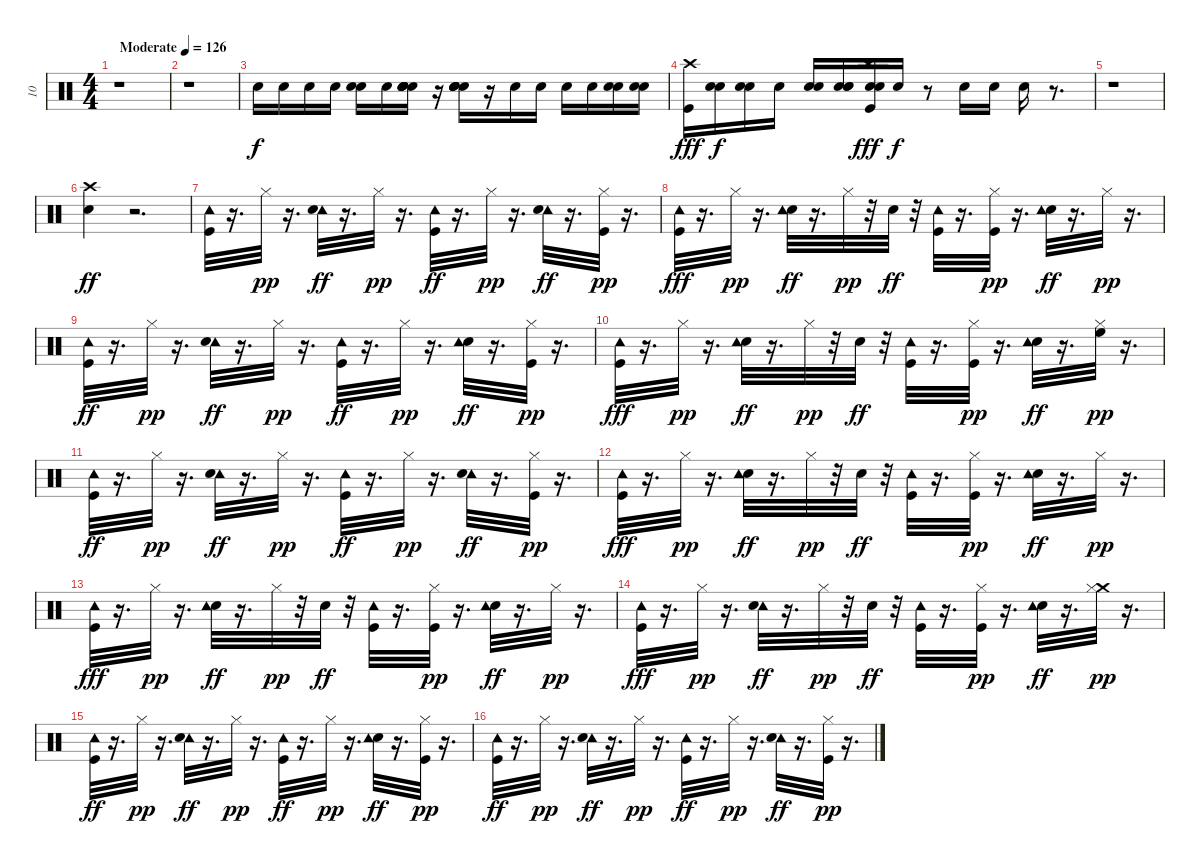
\track ("10" "10") {instrument percussion}
\staff {score}
\articulation defaults
\ts (4 4)
\tempo (126 "Moderate")
\clef neutral
\ks c
r.1{dy f} |
r.1 |
"Snare (hit)".16 "Snare (hit)".16 "Snare (hit)".16 "Snare (hit)".16 ("Snare (hit)" "Snare (hit)").16 "Snare (hit)".16 ("Snare (hit)" "Snare (hit)" "Snare (hit)" "Snare (hit)" "Snare (hit)" "Snare (hit)").16 r.16 ("Snare (hit)" "Snare (hit)" "Snare (hit)" "Snare (hit)").16 r.16 "Snare (hit)".16 "Snare (hit)".16 "Snare (hit)".16 "Snare (hit)".16 ("Snare (hit)" "Snare (hit)").16 ("Snare (hit)" "Snare (hit)").16 |
("Crash high (hit)" "Kick (hit)").16{dy fff} ("Snare (hit)" "Snare (hit)").16{dy f} ("Snare (hit)" "Snare (hit)").16 "Snare (hit)".16 ("Snare (hit)" "Snare (hit)").16 ("Snare (hit)" "Snare (hit)" "Snare (hit)").16 ("Snare (hit)" "Snare (hit)" "Crash high (hit)" "Kick (hit)").16{dy fff} "Snare (hit)".16{dy f} r.8 "Snare (hit)".16 "Snare (hit)".16 "Snare (hit)".16 r.8{d} |
r.1 |
("Crash high (hit)" "Electric Snare (hit)").4{dy ff} r.2{d} |
("Tambourine (hit)" "Kick (hit)").32 r.16{d} "Hi-Hat (closed)".32{dy pp} r.16{d} ("Tambourine (hit)" "Electric Snare (hit)").32{dy ff} r.16{d} "Hi-Hat (closed)".32{dy pp} r.16{d} ("Kick (hit)" "Tambourine (hit)").32{dy ff} r.16{d} "Hi-Hat (closed)".32{dy pp} r.16{d} ("Tambourine (hit)" "Electric Snare (hit)").32{dy ff} r.16{d} ("Kick (hit)" "Hi-Hat (closed)").32{dy pp} r.16{d} |
("Tambourine (hit)" "Kick (hit)").32{dy fff} r.16{d} "Hi-Hat (closed)".32{dy pp} r.16{d} ("Electric Snare (hit)" "Tambourine (hit)").32{dy ff} r.16{d} "Hi-Hat (closed)".32{dy pp} r.32 "Electric Snare (hit)".32{dy ff} r.32 ("Tambourine (hit)" "Kick (hit)").32 r.16{d} ("Hi-Hat (closed)" "Kick (hit)").32{dy pp} r.16{d} ("Electric Snare (hit)" "Tambourine (hit)").32{dy ff} r.16{d} "Hi-Hat (closed)".32{dy pp} r.16{d} |
("Tambourine (hit)" "Kick (hit)").32{dy ff} r.16{d} "Hi-Hat (closed)".32{dy pp} r.16{d} ("Tambourine (hit)" "Electric Snare (hit)").32{dy ff} r.16{d} "Hi-Hat (closed)".32{dy pp} r.16{d} ("Kick (hit)" "Tambourine (hit)").32{dy ff} r.16{d} "Hi-Hat (closed)".32{dy pp} r.16{d} ("Electric Snare (hit)" "Tambourine (hit)").32{dy ff} r.16{d} ("Hi-Hat (closed)" "Kick (hit)").32{dy pp} r.16{d} |
("Kick (hit)" "Tambourine (hit)").32{dy fff} r.16{d} "Hi-Hat (closed)".32{dy pp} r.16{d} ("Electric Snare (hit)" "Tambourine (hit)").32{dy ff} r.16{d} "Hi-Hat (closed)".32{dy pp} r.32 "Electric Snare (hit)".32{dy ff} r.32 ("Tambourine (hit)" "Kick (hit)").32 r.16{d} ("Hi-Hat (closed)" "Kick (hit)").32{dy pp} r.16{d} ("Electric Snare (hit)" "Tambourine (hit)").32{dy ff} r.16{d} ("High Floor Tom (hit)" "Hi-Hat (closed)").32{dy pp} r.16{d} |
("Tambourine (hit)" "Kick (hit)").32{dy ff} r.16{d} "Hi-Hat (closed)".32{dy pp} r.16{d} ("Tambourine (hit)" "Electric Snare (hit)").32{dy ff} r.16{d} "Hi-Hat (closed)".32{dy pp} r.16{d} ("Tambourine (hit)" "Kick (hit)").32{dy ff} r.16{d} "Hi-Hat (closed)".32{dy pp} r.16{d} ("Tambourine (hit)" "Electric Snare (hit)").32{dy ff} r.16{d} ("Kick (hit)" "Hi-Hat (closed)").32{dy pp} r.16{d} |
("Tambourine (hit)" "Kick (hit)").32{dy fff} r.16{d} "Hi-Hat (closed)".32{dy pp} r.16{d} ("Electric Snare (hit)" "Tambourine (hit)").32{dy ff} r.16{d} "Hi-Hat (closed)".32{dy pp} r.32 "Electric Snare (hit)".32{dy ff} r.32 ("Tambourine (hit)" "Kick (hit)").32 r.16{d} ("Hi-Hat (closed)" "Kick (hit)").32{dy pp} r.16{d} ("Electric Snare (hit)" "Tambourine (hit)").32{dy ff} r.16{d} "Hi-Hat (closed)".32{dy pp} r.16{d} |
("Kick (hit)" "Tambourine (hit)").32{dy fff} r.16{d} "Hi-Hat (closed)".32{dy pp} r.16{d} ("Electric Snare (hit)" "Tambourine (hit)").32{dy ff} r.16{d} "Hi-Hat (closed)".32{dy pp} r.32 "Electric Snare (hit)".32{dy ff} r.32 ("Tambourine (hit)" "Kick (hit)").32 r.16{d} ("Hi-Hat (closed)" "Kick (hit)").32{dy pp} r.16{d} ("Electric Snare (hit)" "Tambourine (hit)").32{dy ff} r.16{d} "Hi-Hat (closed)".32{dy pp} r.16{d} |
("Tambourine (hit)" "Kick (hit)").32{dy fff} r.16{d} "Hi-Hat (closed)".32{dy pp} r.16{d} ("Tambourine (hit)" "Electric Snare (hit)").32{dy ff} r.16{d} "Hi-Hat (closed)".32{dy pp} r.32 "Electric Snare (hit)".32{dy ff} r.32 ("Kick (hit)" "Tambourine (hit)").32 r.16{d} ("Hi-Hat (closed)" "Kick (hit)").32{dy pp} r.16{d} ("Electric Snare (hit)" "Tambourine (hit)").32{dy ff} r.16{d} ("Crash medium (hit)" "Hi-Hat (closed)").32{dy pp} r.16{d} |
("Tambourine (hit)" "Kick (hit)").32{dy ff} r.16{d} "Hi-Hat (closed)".32{dy pp} r.16{d} ("Tambourine (hit)" "Electric Snare (hit)").32{dy ff} r.16{d} "Hi-Hat (closed)".32{dy pp} r.16{d} ("Kick (hit)" "Tambourine (hit)").32{dy ff} r.16{d} "Hi-Hat (closed)".32{dy pp} r.16{d} ("Electric Snare (hit)" "Tambourine (hit)").32{dy ff} r.16{d} ("Hi-Hat (closed)" "Kick (hit)").32{dy pp} r.16{d} |
("Tambourine (hit)" "Kick (hit)").32{dy ff} r.16{d} "Hi-Hat (closed)".32{dy pp} r.16{d} ("Tambourine (hit)" "Electric Snare (hit)").32{dy ff} r.16{d} "Hi-Hat (closed)".32{dy pp} r.16{d} ("Kick (hit)" "Tambourine (hit)").32{dy ff} r.16{d} "Hi-Hat (closed)".32{dy pp} r.16{d} ("Tambourine (hit)" "Electric Snare (hit)").32{dy ff} r.16{d} ("Kick (hit)" "Hi-Hat (closed)").32{dy pp} r.16{d}
